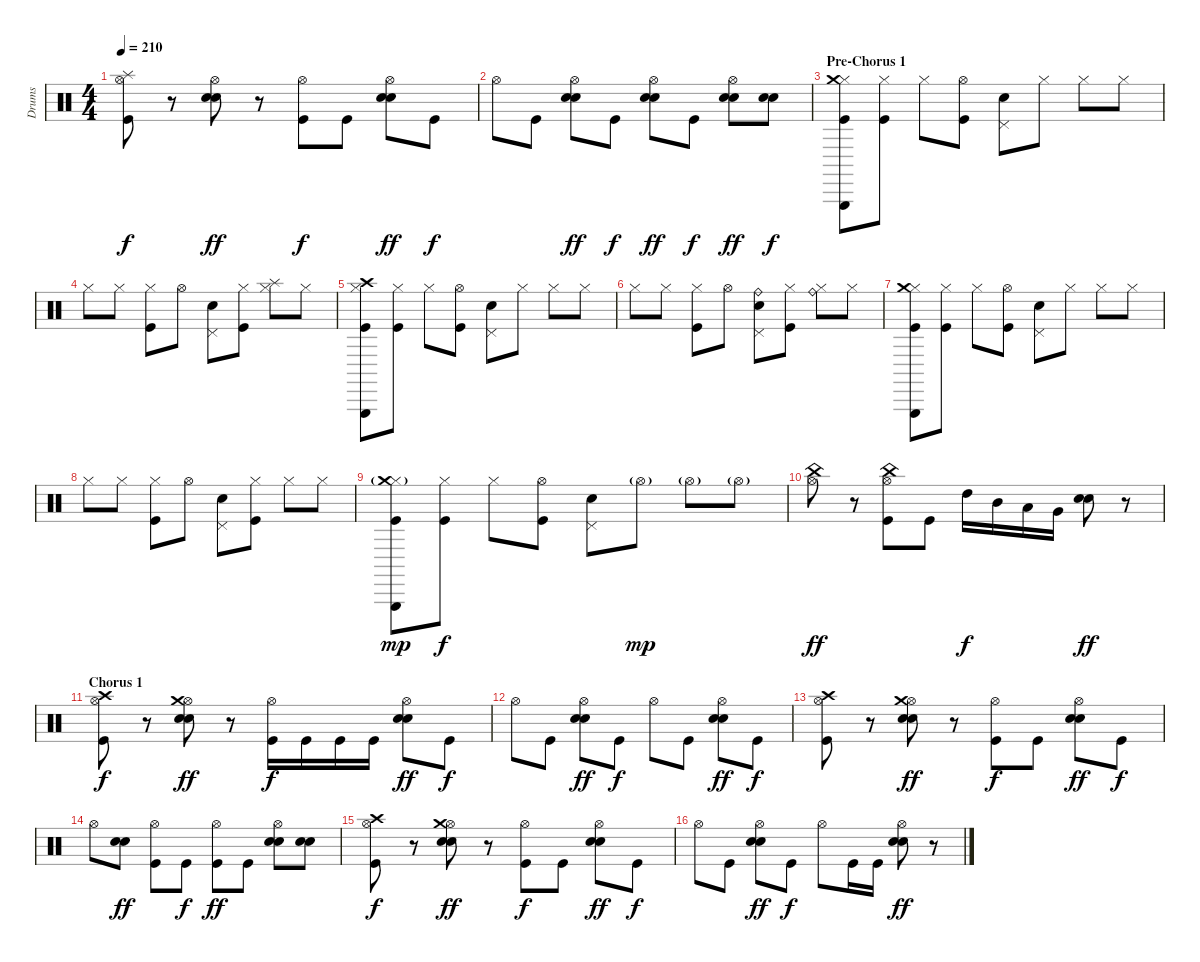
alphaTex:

\track ("Drums" "Drums") {instrument percussion}
\staff {score}
\articulation defaults
\ts (4 4)
\tempo 210
\clef neutral
\ks c
("Kick (hit)" "Hi-Hat (open)" "Splash (hit)").8{dy f} r.8 ("Electric Snare (hit)" "Electric Snare (hit)" "Hi-Hat (open)").8{dy ff} r.8 ("Kick (hit)" "Hi-Hat (open)").8{dy f} "Kick (hit)".8 ("Electric Snare (hit)" "Electric Snare (hit)" "Hi-Hat (open)").8{dy ff} "Kick (hit)".8{dy f} |
"Hi-Hat (open)".8 "Kick (hit)".8 ("Electric Snare (hit)" "Electric Snare (hit)" "Hi-Hat (open)").8{dy ff} "Kick (hit)".8{dy f} ("Electric Snare (hit)" "Electric Snare (hit)" "Hi-Hat (open)").8{dy ff} "Kick (hit)".8{dy f} ("Electric Snare (hit)" "Electric Snare (hit)" "Hi-Hat (open)").8{dy ff} ("Electric Snare (hit)" "Electric Snare (hit)").8{dy f} |
\section ("" "Pre-Chorus 1")
("Kick (hit)" "Hi-Hat (closed)" "Triangle (hit)" "Crash medium (hit)").8 ("Kick (hit)" "Hi-Hat (closed)").8 "Hi-Hat (closed)".8 ("Kick (hit)" "Hi-Hat (open)").8 ("Electric Snare (hit)" "Pedal Hi-Hat (hit)").8 "Hi-Hat (closed)".8 "Hi-Hat (closed)".8 "Hi-Hat (closed)".8 |
"Hi-Hat (closed)".8 "Hi-Hat (closed)".8 ("Kick (hit)" "Hi-Hat (closed)").8 "Hi-Hat (open)".8 ("Electric Snare (hit)" "Pedal Hi-Hat (hit)").8 ("Kick (hit)" "Hi-Hat (closed)").8 ("Hi-Hat (closed)" "Splash (hit)").8 "Hi-Hat (closed)".8 |
("Kick (hit)" "Hi-Hat (closed)" "Triangle (hit)" "Crash high (hit)").8 ("Kick (hit)" "Hi-Hat (closed)").8 "Hi-Hat (closed)".8 ("Kick (hit)" "Hi-Hat (open)").8 ("Electric Snare (hit)" "Pedal Hi-Hat (hit)").8 "Hi-Hat (closed)".8 "Hi-Hat (closed)".8 "Hi-Hat (closed)".8 |
"Hi-Hat (closed)".8 "Hi-Hat (closed)".8 ("Kick (hit)" "Hi-Hat (closed)").8 "Hi-Hat (open)".8 ("Electric Snare (hit)" "Pedal Hi-Hat (hit)" "Ride (bell)").8 ("Kick (hit)" "Hi-Hat (closed)").8 ("Hi-Hat (closed)" "Ride (bell)").8 "Hi-Hat (closed)".8 |
("Kick (hit)" "Hi-Hat (closed)" "Triangle (hit)" "Crash medium (hit)").8 ("Kick (hit)" "Hi-Hat (closed)").8 "Hi-Hat (closed)".8 ("Kick (hit)" "Hi-Hat (open)").8 ("Electric Snare (hit)" "Pedal Hi-Hat (hit)").8 "Hi-Hat (closed)".8 "Hi-Hat (closed)".8 "Hi-Hat (closed)".8 |
"Hi-Hat (closed)".8 "Hi-Hat (closed)".8 ("Kick (hit)" "Hi-Hat (closed)").8 "Hi-Hat (open)".8 ("Electric Snare (hit)" "Pedal Hi-Hat (hit)").8 ("Kick (hit)" "Hi-Hat (closed)").8 "Hi-Hat (closed)".8 "Hi-Hat (closed)".8 |
("Kick (hit)" "Hi-Hat (closed)" "Triangle (hit)" "Crash medium (hit)"{g}).8{dy mp} ("Kick (hit)" "Hi-Hat (closed)").8{dy f} "Hi-Hat (closed)".8 ("Kick (hit)" "Hi-Hat (open)").8 ("Electric Snare (hit)" "Pedal Hi-Hat (hit)").8 "Hi-Hat (open)"{g}.8{dy mp} "Hi-Hat (open)"{g}.8 "Hi-Hat (open)"{g}.8 |
("Hi-Hat (open)" "China (hit)").8{dy ff} r.8 ("Kick (hit)" "Hi-Hat (open)" "China (hit)").8 "Kick (hit)".8 "High Tom (hit)".16{dy f} "Mid Tom (hit)".16 "Low Tom (hit)".16 "Very Low Tom (hit)".16 ("Electric Snare (hit)" "Electric Snare (hit)").8{dy ff} r.8 |
\section ("" "Chorus 1")
("Kick (hit)" "Hi-Hat (open)" "Crash high (hit)").8{dy f} r.8 ("Electric Snare (hit)" "Electric Snare (hit)" "Hi-Hat (open)" "Crash medium (hit)").8{dy ff} r.8 ("Kick (hit)" "Hi-Hat (open)").16{dy f} "Kick (hit)".16 "Kick (hit)".16 "Kick (hit)".16 ("Electric Snare (hit)" "Electric Snare (hit)" "Hi-Hat (open)").8{dy ff} "Kick (hit)".8{dy f} |
"Hi-Hat (open)".8 "Kick (hit)".8 ("Electric Snare (hit)" "Electric Snare (hit)" "Hi-Hat (open)").8{dy ff} "Kick (hit)".8{dy f} "Hi-Hat (open)".8 "Kick (hit)".8 ("Electric Snare (hit)" "Electric Snare (hit)" "Hi-Hat (open)").8{dy ff} "Kick (hit)".8{dy f} |
("Kick (hit)" "Hi-Hat (open)" "Crash high (hit)").8 r.8 ("Electric Snare (hit)" "Electric Snare (hit)" "Hi-Hat (open)" "Crash medium (hit)").8{dy ff} r.8 ("Kick (hit)" "Hi-Hat (open)").8{dy f} "Kick (hit)".8 ("Electric Snare (hit)" "Electric Snare (hit)" "Hi-Hat (open)").8{dy ff} "Kick (hit)".8{dy f} |
"Hi-Hat (open)".8 ("Electric Snare (hit)" "Electric Snare (hit)").8{dy ff} ("Kick (hit)" "Hi-Hat (open)").8 "Kick (hit)".8{dy f} ("Kick (hit)" "Hi-Hat (open)").8{dy ff} "Kick (hit)".8 ("Electric Snare (hit)" "Electric Snare (hit)" "Hi-Hat (open)").8 ("Electric Snare (hit)" "Electric Snare (hit)").8 |
("Kick (hit)" "Hi-Hat (open)" "Crash high (hit)").8{dy f} r.8 ("Electric Snare (hit)" "Electric Snare (hit)" "Hi-Hat (open)" "Crash medium (hit)").8{dy ff} r.8 ("Kick (hit)" "Hi-Hat (open)").8{dy f} "Kick (hit)".8 ("Electric Snare (hit)" "Electric Snare (hit)" "Hi-Hat (open)").8{dy ff} "Kick (hit)".8{dy f} |
"Hi-Hat (open)".8 "Kick (hit)".8 ("Electric Snare (hit)" "Electric Snare (hit)" "Hi-Hat (open)").8{dy ff} "Kick (hit)".8{dy f} "Hi-Hat (open)".8 "Kick (hit)".16 "Kick (hit)".16 ("Electric Snare (hit)" "Electric Snare (hit)" "Hi-Hat (open)").8{dy ff} r.8
